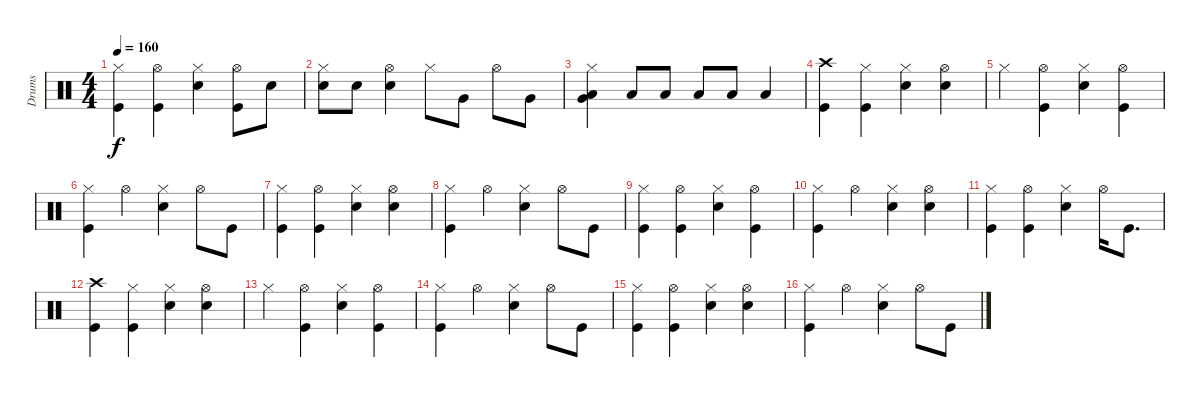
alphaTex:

\track ("Drums" "Drums") {instrument percussion}
\staff {score}
\articulation defaults
\ts (4 4)
\tempo 160
\clef neutral
\ks c
("Hi-Hat (closed)" "Kick (hit)").4{dy f} ("Hi-Hat (open)" "Kick (hit)").4 ("Hi-Hat (closed)" "Snare (hit) 2").4 ("Hi-Hat (open)" "Kick (hit)").8 "Snare (hit) 2".8 |
("Hi-Hat (closed)" "Snare (hit) 2").8 "Snare (hit) 2".8 ("Snare (hit) 2" "Hi-Hat (open)").4 "Hi-Hat (closed)".8 "Very Low Tom (hit)".8 "Hi-Hat (open)".8 "Very Low Tom (hit)".8 |
("Very Low Tom (hit)" "Hi-Hat (closed)" "Low Floor Tom (hit)").4 "Low Floor Tom (hit)".8 "Low Floor Tom (hit)".8 "Low Floor Tom (hit)".8 "Low Floor Tom (hit)".8 "Low Floor Tom (hit)".4 |
("Kick (hit)" "Crash high (hit)").4 ("Hi-Hat (closed)" "Kick (hit)").4 ("Hi-Hat (closed)" "Snare (hit) 2").4 ("Snare (hit) 2" "Hi-Hat (open)").4 |
"Hi-Hat (closed)".4 ("Kick (hit)" "Hi-Hat (open)").4 ("Snare (hit) 2" "Hi-Hat (closed)").4 ("Kick (hit)" "Hi-Hat (open)").4 |
("Kick (hit)" "Hi-Hat (closed)").4 "Hi-Hat (open)".4 ("Snare (hit) 2" "Hi-Hat (closed)").4 "Hi-Hat (open)".8 "Kick (hit)".8 |
("Hi-Hat (closed)" "Kick (hit)").4 ("Hi-Hat (open)" "Kick (hit)").4 ("Hi-Hat (closed)" "Snare (hit) 2").4 ("Hi-Hat (open)" "Snare (hit) 2").4 |
("Hi-Hat (closed)" "Kick (hit)").4 "Hi-Hat (open)".4 ("Snare (hit) 2" "Hi-Hat (closed)").4 "Hi-Hat (open)".8 "Kick (hit)".8 |
("Hi-Hat (closed)" "Kick (hit)").4 ("Hi-Hat (open)" "Kick (hit)").4 ("Hi-Hat (closed)" "Snare (hit) 2").4 ("Hi-Hat (open)" "Kick (hit)").4 |
("Hi-Hat (closed)" "Kick (hit)").4 "Hi-Hat (open)".4 ("Snare (hit) 2" "Hi-Hat (closed)").4 ("Snare (hit) 2" "Hi-Hat (open)").4 |
("Hi-Hat (closed)" "Kick (hit)").4 ("Hi-Hat (open)" "Kick (hit)").4 ("Hi-Hat (closed)" "Snare (hit) 2").4 "Hi-Hat (open)".16 "Kick (hit)".8{d} |
("Kick (hit)" "Crash high (hit)").4 ("Hi-Hat (closed)" "Kick (hit)").4 ("Hi-Hat (closed)" "Snare (hit) 2").4 ("Snare (hit) 2" "Hi-Hat (open)").4 |
"Hi-Hat (closed)".4 ("Kick (hit)" "Hi-Hat (open)").4 ("Snare (hit) 2" "Hi-Hat (closed)").4 ("Kick (hit)" "Hi-Hat (open)").4 |
("Kick (hit)" "Hi-Hat (closed)").4 "Hi-Hat (open)".4 ("Snare (hit) 2" "Hi-Hat (closed)").4 "Hi-Hat (open)".8 "Kick (hit)".8 |
("Hi-Hat (closed)" "Kick (hit)").4 ("Hi-Hat (open)" "Kick (hit)").4 ("Hi-Hat (closed)" "Snare (hit) 2").4 ("Hi-Hat (open)" "Snare (hit) 2").4 |
("Hi-Hat (closed)" "Kick (hit)").4 "Hi-Hat (open)".4 ("Snare (hit) 2" "Hi-Hat (closed)").4 "Hi-Hat (open)".8 "Kick (hit)".8
